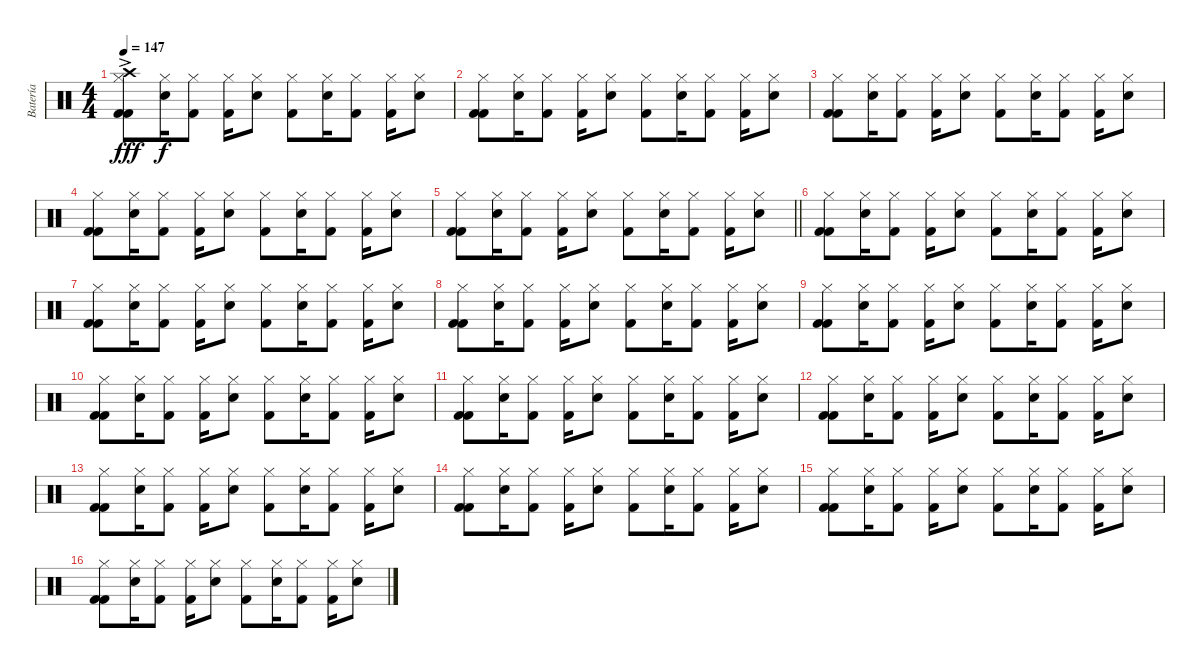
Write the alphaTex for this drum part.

\track ("Batería" "Batería") {instrument percussion}
\staff {score}
\articulation defaults
\ts (4 4)
\tempo 147
\clef neutral
\ks c
("Crash high (hit)"{ac} "Hi-Hat (closed)" "Kick (hit) 2" "Kick (hit) 2").8{dy fff} ("Hi-Hat (closed)" "Electric Snare (hit)").16{dy f} ("Hi-Hat (closed)" "Kick (hit) 2").8 ("Hi-Hat (closed)" "Kick (hit) 2").16 ("Hi-Hat (closed)" "Electric Snare (hit)").8 ("Hi-Hat (closed)" "Kick (hit) 2").8 ("Hi-Hat (closed)" "Electric Snare (hit)").16 ("Hi-Hat (closed)" "Kick (hit) 2").8 ("Hi-Hat (closed)" "Kick (hit) 2").16 ("Hi-Hat (closed)" "Electric Snare (hit)").8 |
("Hi-Hat (closed)" "Kick (hit) 2" "Kick (hit) 2").8 ("Hi-Hat (closed)" "Electric Snare (hit)").16 ("Hi-Hat (closed)" "Kick (hit) 2").8 ("Hi-Hat (closed)" "Kick (hit) 2").16 ("Hi-Hat (closed)" "Electric Snare (hit)").8 ("Hi-Hat (closed)" "Kick (hit) 2").8 ("Hi-Hat (closed)" "Electric Snare (hit)").16 ("Hi-Hat (closed)" "Kick (hit) 2").8 ("Hi-Hat (closed)" "Kick (hit) 2").16 ("Hi-Hat (closed)" "Electric Snare (hit)").8 |
("Hi-Hat (closed)" "Kick (hit) 2" "Kick (hit) 2").8 ("Hi-Hat (closed)" "Electric Snare (hit)").16 ("Hi-Hat (closed)" "Kick (hit) 2").8 ("Hi-Hat (closed)" "Kick (hit) 2").16 ("Hi-Hat (closed)" "Electric Snare (hit)").8 ("Hi-Hat (closed)" "Kick (hit) 2").8 ("Hi-Hat (closed)" "Electric Snare (hit)").16 ("Hi-Hat (closed)" "Kick (hit) 2").8 ("Hi-Hat (closed)" "Kick (hit) 2").16 ("Hi-Hat (closed)" "Electric Snare (hit)").8 |
("Hi-Hat (closed)" "Kick (hit) 2" "Kick (hit) 2").8 ("Hi-Hat (closed)" "Electric Snare (hit)").16 ("Hi-Hat (closed)" "Kick (hit) 2").8 ("Hi-Hat (closed)" "Kick (hit) 2").16 ("Hi-Hat (closed)" "Electric Snare (hit)").8 ("Hi-Hat (closed)" "Kick (hit) 2").8 ("Hi-Hat (closed)" "Electric Snare (hit)").16 ("Hi-Hat (closed)" "Kick (hit) 2").8 ("Hi-Hat (closed)" "Kick (hit) 2").16 ("Hi-Hat (closed)" "Electric Snare (hit)").8 |
\barLineRight lightlight
("Hi-Hat (closed)" "Kick (hit) 2" "Kick (hit) 2").8 ("Hi-Hat (closed)" "Electric Snare (hit)").16 ("Hi-Hat (closed)" "Kick (hit) 2").8 ("Hi-Hat (closed)" "Kick (hit) 2").16 ("Hi-Hat (closed)" "Electric Snare (hit)").8 ("Hi-Hat (closed)" "Kick (hit) 2").8 ("Hi-Hat (closed)" "Electric Snare (hit)").16 ("Hi-Hat (closed)" "Kick (hit) 2").8 ("Hi-Hat (closed)" "Kick (hit) 2").16 ("Hi-Hat (closed)" "Electric Snare (hit)").8 |
\section ("" "")
("Hi-Hat (closed)" "Kick (hit) 2" "Kick (hit) 2").8 ("Hi-Hat (closed)" "Electric Snare (hit)").16 ("Hi-Hat (closed)" "Kick (hit) 2").8 ("Hi-Hat (closed)" "Kick (hit) 2").16 ("Hi-Hat (closed)" "Electric Snare (hit)").8 ("Hi-Hat (closed)" "Kick (hit) 2").8 ("Hi-Hat (closed)" "Electric Snare (hit)").16 ("Hi-Hat (closed)" "Kick (hit) 2").8 ("Hi-Hat (closed)" "Kick (hit) 2").16 ("Hi-Hat (closed)" "Electric Snare (hit)").8 |
("Hi-Hat (closed)" "Kick (hit) 2" "Kick (hit) 2").8 ("Hi-Hat (closed)" "Electric Snare (hit)").16 ("Hi-Hat (closed)" "Kick (hit) 2").8 ("Hi-Hat (closed)" "Kick (hit) 2").16 ("Hi-Hat (closed)" "Electric Snare (hit)").8 ("Hi-Hat (closed)" "Kick (hit) 2").8 ("Hi-Hat (closed)" "Electric Snare (hit)").16 ("Hi-Hat (closed)" "Kick (hit) 2").8 ("Hi-Hat (closed)" "Kick (hit) 2").16 ("Hi-Hat (closed)" "Electric Snare (hit)").8 |
("Hi-Hat (closed)" "Kick (hit) 2" "Kick (hit) 2").8 ("Hi-Hat (closed)" "Electric Snare (hit)").16 ("Hi-Hat (closed)" "Kick (hit) 2").8 ("Hi-Hat (closed)" "Kick (hit) 2").16 ("Hi-Hat (closed)" "Electric Snare (hit)").8 ("Hi-Hat (closed)" "Kick (hit) 2").8 ("Hi-Hat (closed)" "Electric Snare (hit)").16 ("Hi-Hat (closed)" "Kick (hit) 2").8 ("Hi-Hat (closed)" "Kick (hit) 2").16 ("Hi-Hat (closed)" "Electric Snare (hit)").8 |
("Hi-Hat (closed)" "Kick (hit) 2" "Kick (hit) 2").8 ("Hi-Hat (closed)" "Electric Snare (hit)").16 ("Hi-Hat (closed)" "Kick (hit) 2").8 ("Hi-Hat (closed)" "Kick (hit) 2").16 ("Hi-Hat (closed)" "Electric Snare (hit)").8 ("Hi-Hat (closed)" "Kick (hit) 2").8 ("Hi-Hat (closed)" "Electric Snare (hit)").16 ("Hi-Hat (closed)" "Kick (hit) 2").8 ("Hi-Hat (closed)" "Kick (hit) 2").16 ("Hi-Hat (closed)" "Electric Snare (hit)").8 |
("Hi-Hat (closed)" "Kick (hit) 2" "Kick (hit) 2").8 ("Hi-Hat (closed)" "Electric Snare (hit)").16 ("Hi-Hat (closed)" "Kick (hit) 2").8 ("Hi-Hat (closed)" "Kick (hit) 2").16 ("Hi-Hat (closed)" "Electric Snare (hit)").8 ("Hi-Hat (closed)" "Kick (hit) 2").8 ("Hi-Hat (closed)" "Electric Snare (hit)").16 ("Hi-Hat (closed)" "Kick (hit) 2").8 ("Hi-Hat (closed)" "Kick (hit) 2").16 ("Hi-Hat (closed)" "Electric Snare (hit)").8 |
("Hi-Hat (closed)" "Kick (hit) 2" "Kick (hit) 2").8 ("Hi-Hat (closed)" "Electric Snare (hit)").16 ("Hi-Hat (closed)" "Kick (hit) 2").8 ("Hi-Hat (closed)" "Kick (hit) 2").16 ("Hi-Hat (closed)" "Electric Snare (hit)").8 ("Hi-Hat (closed)" "Kick (hit) 2").8 ("Hi-Hat (closed)" "Electric Snare (hit)").16 ("Hi-Hat (closed)" "Kick (hit) 2").8 ("Hi-Hat (closed)" "Kick (hit) 2").16 ("Hi-Hat (closed)" "Electric Snare (hit)").8 |
("Hi-Hat (closed)" "Kick (hit) 2" "Kick (hit) 2").8 ("Hi-Hat (closed)" "Electric Snare (hit)").16 ("Hi-Hat (closed)" "Kick (hit) 2").8 ("Hi-Hat (closed)" "Kick (hit) 2").16 ("Hi-Hat (closed)" "Electric Snare (hit)").8 ("Hi-Hat (closed)" "Kick (hit) 2").8 ("Hi-Hat (closed)" "Electric Snare (hit)").16 ("Hi-Hat (closed)" "Kick (hit) 2").8 ("Hi-Hat (closed)" "Kick (hit) 2").16 ("Hi-Hat (closed)" "Electric Snare (hit)").8 |
("Hi-Hat (closed)" "Kick (hit) 2" "Kick (hit) 2").8 ("Hi-Hat (closed)" "Electric Snare (hit)").16 ("Hi-Hat (closed)" "Kick (hit) 2").8 ("Hi-Hat (closed)" "Kick (hit) 2").16 ("Hi-Hat (closed)" "Electric Snare (hit)").8 ("Hi-Hat (closed)" "Kick (hit) 2").8 ("Hi-Hat (closed)" "Electric Snare (hit)").16 ("Hi-Hat (closed)" "Kick (hit) 2").8 ("Hi-Hat (closed)" "Kick (hit) 2").16 ("Hi-Hat (closed)" "Electric Snare (hit)").8 |
("Hi-Hat (closed)" "Kick (hit) 2" "Kick (hit) 2").8 ("Hi-Hat (closed)" "Electric Snare (hit)").16 ("Hi-Hat (closed)" "Kick (hit) 2").8 ("Hi-Hat (closed)" "Kick (hit) 2").16 ("Hi-Hat (closed)" "Electric Snare (hit)").8 ("Hi-Hat (closed)" "Kick (hit) 2").8 ("Hi-Hat (closed)" "Electric Snare (hit)").16 ("Hi-Hat (closed)" "Kick (hit) 2").8 ("Hi-Hat (closed)" "Kick (hit) 2").16 ("Hi-Hat (closed)" "Electric Snare (hit)").8 |
("Hi-Hat (closed)" "Kick (hit) 2" "Kick (hit) 2").8 ("Hi-Hat (closed)" "Electric Snare (hit)").16 ("Hi-Hat (closed)" "Kick (hit) 2").8 ("Hi-Hat (closed)" "Kick (hit) 2").16 ("Hi-Hat (closed)" "Electric Snare (hit)").8 ("Hi-Hat (closed)" "Kick (hit) 2").8 ("Hi-Hat (closed)" "Electric Snare (hit)").16 ("Hi-Hat (closed)" "Kick (hit) 2").8 ("Hi-Hat (closed)" "Kick (hit) 2").16 ("Hi-Hat (closed)" "Electric Snare (hit)").8 |
("Hi-Hat (closed)" "Kick (hit) 2" "Kick (hit) 2").8 ("Hi-Hat (closed)" "Electric Snare (hit)").16 ("Hi-Hat (closed)" "Kick (hit) 2").8 ("Hi-Hat (closed)" "Kick (hit) 2").16 ("Hi-Hat (closed)" "Electric Snare (hit)").8 ("Hi-Hat (closed)" "Kick (hit) 2").8 ("Hi-Hat (closed)" "Electric Snare (hit)").16 ("Hi-Hat (closed)" "Kick (hit) 2").8 ("Hi-Hat (closed)" "Kick (hit) 2").16 ("Hi-Hat (closed)" "Electric Snare (hit)").8
